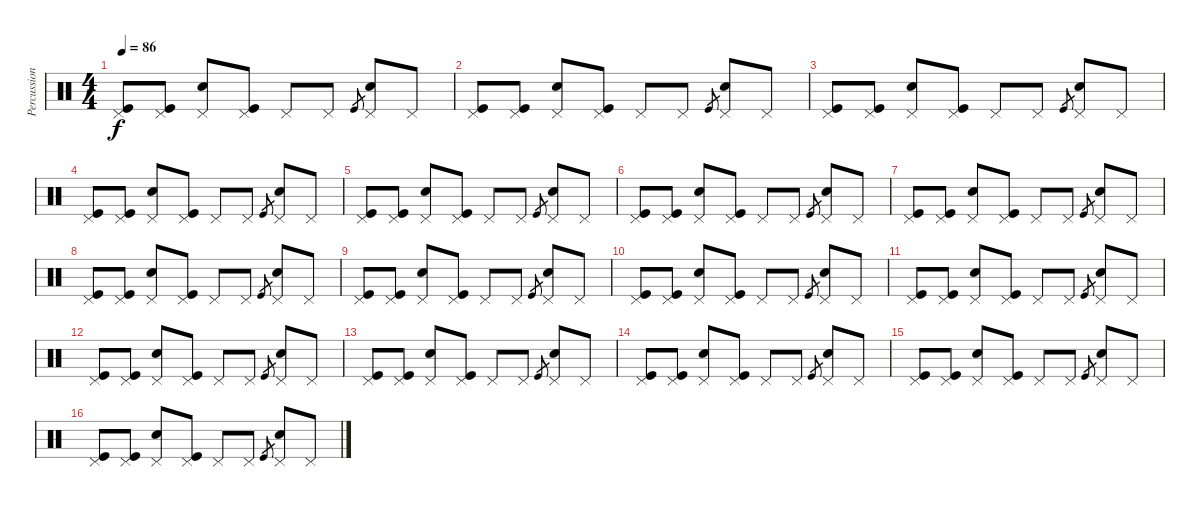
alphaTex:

\track ("Percussions" "Percussion") {instrument percussion}
\staff {score}
\articulation defaults
\ts (4 4)
\tempo 86
\clef neutral
\ks c
("Pedal Hi-Hat (hit)" "Kick (hit)").8{dy f} ("Pedal Hi-Hat (hit)" "Kick (hit)").8 ("Pedal Hi-Hat (hit)" "Electric Snare (hit)").8 ("Pedal Hi-Hat (hit)" "Kick (hit)").8 "Pedal Hi-Hat (hit)".8 "Pedal Hi-Hat (hit)".8 "Kick (hit)".8{gr} ("Pedal Hi-Hat (hit)" "Electric Snare (hit)").8 "Pedal Hi-Hat (hit)".8 |
("Pedal Hi-Hat (hit)" "Kick (hit)").8 ("Pedal Hi-Hat (hit)" "Kick (hit)").8 ("Pedal Hi-Hat (hit)" "Electric Snare (hit)").8 ("Pedal Hi-Hat (hit)" "Kick (hit)").8 "Pedal Hi-Hat (hit)".8 "Pedal Hi-Hat (hit)".8 "Kick (hit)".8{gr} ("Pedal Hi-Hat (hit)" "Electric Snare (hit)").8 "Pedal Hi-Hat (hit)".8 |
("Pedal Hi-Hat (hit)" "Kick (hit)").8 ("Pedal Hi-Hat (hit)" "Kick (hit)").8 ("Pedal Hi-Hat (hit)" "Electric Snare (hit)").8 ("Pedal Hi-Hat (hit)" "Kick (hit)").8 "Pedal Hi-Hat (hit)".8 "Pedal Hi-Hat (hit)".8 "Kick (hit)".8{gr} ("Pedal Hi-Hat (hit)" "Electric Snare (hit)").8 "Pedal Hi-Hat (hit)".8 |
("Pedal Hi-Hat (hit)" "Kick (hit)").8 ("Pedal Hi-Hat (hit)" "Kick (hit)").8 ("Pedal Hi-Hat (hit)" "Electric Snare (hit)").8 ("Pedal Hi-Hat (hit)" "Kick (hit)").8 "Pedal Hi-Hat (hit)".8 "Pedal Hi-Hat (hit)".8 "Kick (hit)".8{gr} ("Pedal Hi-Hat (hit)" "Electric Snare (hit)").8 "Pedal Hi-Hat (hit)".8 |
("Pedal Hi-Hat (hit)" "Kick (hit)").8 ("Pedal Hi-Hat (hit)" "Kick (hit)").8 ("Pedal Hi-Hat (hit)" "Electric Snare (hit)").8 ("Pedal Hi-Hat (hit)" "Kick (hit)").8 "Pedal Hi-Hat (hit)".8 "Pedal Hi-Hat (hit)".8 "Kick (hit)".8{gr} ("Pedal Hi-Hat (hit)" "Electric Snare (hit)").8 "Pedal Hi-Hat (hit)".8 |
("Pedal Hi-Hat (hit)" "Kick (hit)").8 ("Pedal Hi-Hat (hit)" "Kick (hit)").8 ("Pedal Hi-Hat (hit)" "Electric Snare (hit)").8 ("Pedal Hi-Hat (hit)" "Kick (hit)").8 "Pedal Hi-Hat (hit)".8 "Pedal Hi-Hat (hit)".8 "Kick (hit)".8{gr} ("Pedal Hi-Hat (hit)" "Electric Snare (hit)").8 "Pedal Hi-Hat (hit)".8 |
("Pedal Hi-Hat (hit)" "Kick (hit)").8 ("Pedal Hi-Hat (hit)" "Kick (hit)").8 ("Pedal Hi-Hat (hit)" "Electric Snare (hit)").8 ("Pedal Hi-Hat (hit)" "Kick (hit)").8 "Pedal Hi-Hat (hit)".8 "Pedal Hi-Hat (hit)".8 "Kick (hit)".8{gr} ("Pedal Hi-Hat (hit)" "Electric Snare (hit)").8 "Pedal Hi-Hat (hit)".8 |
("Pedal Hi-Hat (hit)" "Kick (hit)").8 ("Pedal Hi-Hat (hit)" "Kick (hit)").8 ("Pedal Hi-Hat (hit)" "Electric Snare (hit)").8 ("Pedal Hi-Hat (hit)" "Kick (hit)").8 "Pedal Hi-Hat (hit)".8 "Pedal Hi-Hat (hit)".8 "Kick (hit)".8{gr} ("Pedal Hi-Hat (hit)" "Electric Snare (hit)").8 "Pedal Hi-Hat (hit)".8 |
("Pedal Hi-Hat (hit)" "Kick (hit)").8 ("Pedal Hi-Hat (hit)" "Kick (hit)").8 ("Pedal Hi-Hat (hit)" "Electric Snare (hit)").8 ("Pedal Hi-Hat (hit)" "Kick (hit)").8 "Pedal Hi-Hat (hit)".8 "Pedal Hi-Hat (hit)".8 "Kick (hit)".8{gr} ("Pedal Hi-Hat (hit)" "Electric Snare (hit)").8 "Pedal Hi-Hat (hit)".8 |
("Pedal Hi-Hat (hit)" "Kick (hit)").8 ("Pedal Hi-Hat (hit)" "Kick (hit)").8 ("Pedal Hi-Hat (hit)" "Electric Snare (hit)").8 ("Pedal Hi-Hat (hit)" "Kick (hit)").8 "Pedal Hi-Hat (hit)".8 "Pedal Hi-Hat (hit)".8 "Kick (hit)".8{gr} ("Pedal Hi-Hat (hit)" "Electric Snare (hit)").8 "Pedal Hi-Hat (hit)".8 |
("Pedal Hi-Hat (hit)" "Kick (hit)").8 ("Pedal Hi-Hat (hit)" "Kick (hit)").8 ("Pedal Hi-Hat (hit)" "Electric Snare (hit)").8 ("Pedal Hi-Hat (hit)" "Kick (hit)").8 "Pedal Hi-Hat (hit)".8 "Pedal Hi-Hat (hit)".8 "Kick (hit)".8{gr} ("Pedal Hi-Hat (hit)" "Electric Snare (hit)").8 "Pedal Hi-Hat (hit)".8 |
("Pedal Hi-Hat (hit)" "Kick (hit)").8 ("Pedal Hi-Hat (hit)" "Kick (hit)").8 ("Pedal Hi-Hat (hit)" "Electric Snare (hit)").8 ("Pedal Hi-Hat (hit)" "Kick (hit)").8 "Pedal Hi-Hat (hit)".8 "Pedal Hi-Hat (hit)".8 "Kick (hit)".8{gr} ("Pedal Hi-Hat (hit)" "Electric Snare (hit)").8 "Pedal Hi-Hat (hit)".8 |
("Pedal Hi-Hat (hit)" "Kick (hit)").8 ("Pedal Hi-Hat (hit)" "Kick (hit)").8 ("Pedal Hi-Hat (hit)" "Electric Snare (hit)").8 ("Pedal Hi-Hat (hit)" "Kick (hit)").8 "Pedal Hi-Hat (hit)".8 "Pedal Hi-Hat (hit)".8 "Kick (hit)".8{gr} ("Pedal Hi-Hat (hit)" "Electric Snare (hit)").8 "Pedal Hi-Hat (hit)".8 |
("Pedal Hi-Hat (hit)" "Kick (hit)").8 ("Pedal Hi-Hat (hit)" "Kick (hit)").8 ("Pedal Hi-Hat (hit)" "Electric Snare (hit)").8 ("Pedal Hi-Hat (hit)" "Kick (hit)").8 "Pedal Hi-Hat (hit)".8 "Pedal Hi-Hat (hit)".8 "Kick (hit)".8{gr} ("Pedal Hi-Hat (hit)" "Electric Snare (hit)").8 "Pedal Hi-Hat (hit)".8 |
("Pedal Hi-Hat (hit)" "Kick (hit)").8 ("Pedal Hi-Hat (hit)" "Kick (hit)").8 ("Pedal Hi-Hat (hit)" "Electric Snare (hit)").8 ("Pedal Hi-Hat (hit)" "Kick (hit)").8 "Pedal Hi-Hat (hit)".8 "Pedal Hi-Hat (hit)".8 "Kick (hit)".8{gr} ("Pedal Hi-Hat (hit)" "Electric Snare (hit)").8 "Pedal Hi-Hat (hit)".8 |
("Pedal Hi-Hat (hit)" "Kick (hit)").8 ("Pedal Hi-Hat (hit)" "Kick (hit)").8 ("Pedal Hi-Hat (hit)" "Electric Snare (hit)").8 ("Pedal Hi-Hat (hit)" "Kick (hit)").8 "Pedal Hi-Hat (hit)".8 "Pedal Hi-Hat (hit)".8 "Kick (hit)".8{gr} ("Pedal Hi-Hat (hit)" "Electric Snare (hit)").8 "Pedal Hi-Hat (hit)".8
